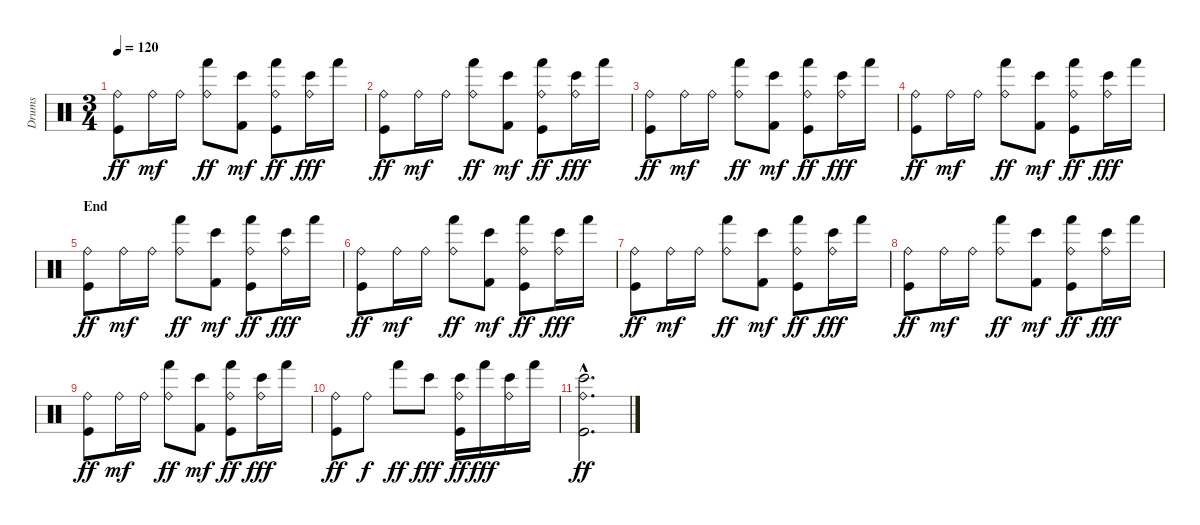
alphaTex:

\track ("Drums" "Drums") {instrument percussion}
\staff {score}
\articulation defaults
\ts (3 4)
\tempo 120
\clef neutral
\ks c
("Ride (bell)" "Kick (hit)").8{dy ff} "Ride (bell)".16{dy mf} "Ride (bell)".16 ("Ride (bell)" "Hand (hit)").8{dy ff} ("Bongo High (hit)" "Kick (hit) 2").8{dy mf} ("Ride (bell)" "Hand (hit)" "Kick (hit)").8{dy ff} ("Ride (bell)" "Bongo High (hit)").16{dy fff} "Hand (hit)".16 |
("Ride (bell)" "Kick (hit)").8{dy ff} "Ride (bell)".16{dy mf} "Ride (bell)".16 ("Ride (bell)" "Hand (hit)").8{dy ff} ("Bongo High (hit)" "Kick (hit) 2").8{dy mf} ("Ride (bell)" "Hand (hit)" "Kick (hit)").8{dy ff} ("Ride (bell)" "Bongo High (hit)").16{dy fff} "Hand (hit)".16 |
("Ride (bell)" "Kick (hit)").8{dy ff} "Ride (bell)".16{dy mf} "Ride (bell)".16 ("Ride (bell)" "Hand (hit)").8{dy ff} ("Bongo High (hit)" "Kick (hit) 2").8{dy mf} ("Ride (bell)" "Hand (hit)" "Kick (hit)").8{dy ff} ("Ride (bell)" "Bongo High (hit)").16{dy fff} "Hand (hit)".16 |
("Ride (bell)" "Kick (hit)").8{dy ff} "Ride (bell)".16{dy mf} "Ride (bell)".16 ("Ride (bell)" "Hand (hit)").8{dy ff} ("Bongo High (hit)" "Kick (hit) 2").8{dy mf} ("Ride (bell)" "Hand (hit)" "Kick (hit)").8{dy ff} ("Ride (bell)" "Bongo High (hit)").16{dy fff} "Hand (hit)".16 |
\section ("" "End")
("Ride (bell)" "Kick (hit)").8{dy ff} "Ride (bell)".16{dy mf} "Ride (bell)".16 ("Ride (bell)" "Hand (hit)").8{dy ff} ("Bongo High (hit)" "Kick (hit) 2").8{dy mf} ("Ride (bell)" "Hand (hit)" "Kick (hit)").8{dy ff} ("Ride (bell)" "Bongo High (hit)").16{dy fff} "Hand (hit)".16 |
("Ride (bell)" "Kick (hit)").8{dy ff} "Ride (bell)".16{dy mf} "Ride (bell)".16 ("Ride (bell)" "Hand (hit)").8{dy ff} ("Bongo High (hit)" "Kick (hit) 2").8{dy mf} ("Ride (bell)" "Hand (hit)" "Kick (hit)").8{dy ff} ("Ride (bell)" "Bongo High (hit)").16{dy fff} "Hand (hit)".16 |
("Ride (bell)" "Kick (hit)").8{dy ff} "Ride (bell)".16{dy mf} "Ride (bell)".16 ("Ride (bell)" "Hand (hit)").8{dy ff} ("Bongo High (hit)" "Kick (hit) 2").8{dy mf} ("Ride (bell)" "Hand (hit)" "Kick (hit)").8{dy ff} ("Ride (bell)" "Bongo High (hit)").16{dy fff} "Hand (hit)".16 |
("Ride (bell)" "Kick (hit)").8{dy ff} "Ride (bell)".16{dy mf} "Ride (bell)".16 ("Ride (bell)" "Hand (hit)").8{dy ff} ("Bongo High (hit)" "Kick (hit) 2").8{dy mf} ("Ride (bell)" "Hand (hit)" "Kick (hit)").8{dy ff} ("Ride (bell)" "Bongo High (hit)").16{dy fff} "Hand (hit)".16 |
("Ride (bell)" "Kick (hit)").8{dy ff} "Ride (bell)".16{dy mf} "Ride (bell)".16 ("Ride (bell)" "Hand (hit)").8{dy ff} ("Bongo High (hit)" "Kick (hit) 2").8{dy mf} ("Ride (bell)" "Hand (hit)" "Kick (hit)").8{dy ff} ("Ride (bell)" "Bongo High (hit)").16{dy fff} "Hand (hit)".16 |
("Ride (bell)" "Kick (hit)").8{dy ff} "Ride (bell)".8{dy f} "Hand (hit)".8{dy ff} "Bongo High (hit)".8{dy fff} ("Ride (bell)" "Bongo High (hit)" "Kick (hit)").16{dy ff} "Hand (hit)".16{dy fff} ("Ride (bell)" "Bongo High (hit)").16 "Hand (hit)".16 |
("Ride (bell)"{hac} "Bongo High (hit)"{hac} "Kick (hit)"{hac}).2{d dy ff}
